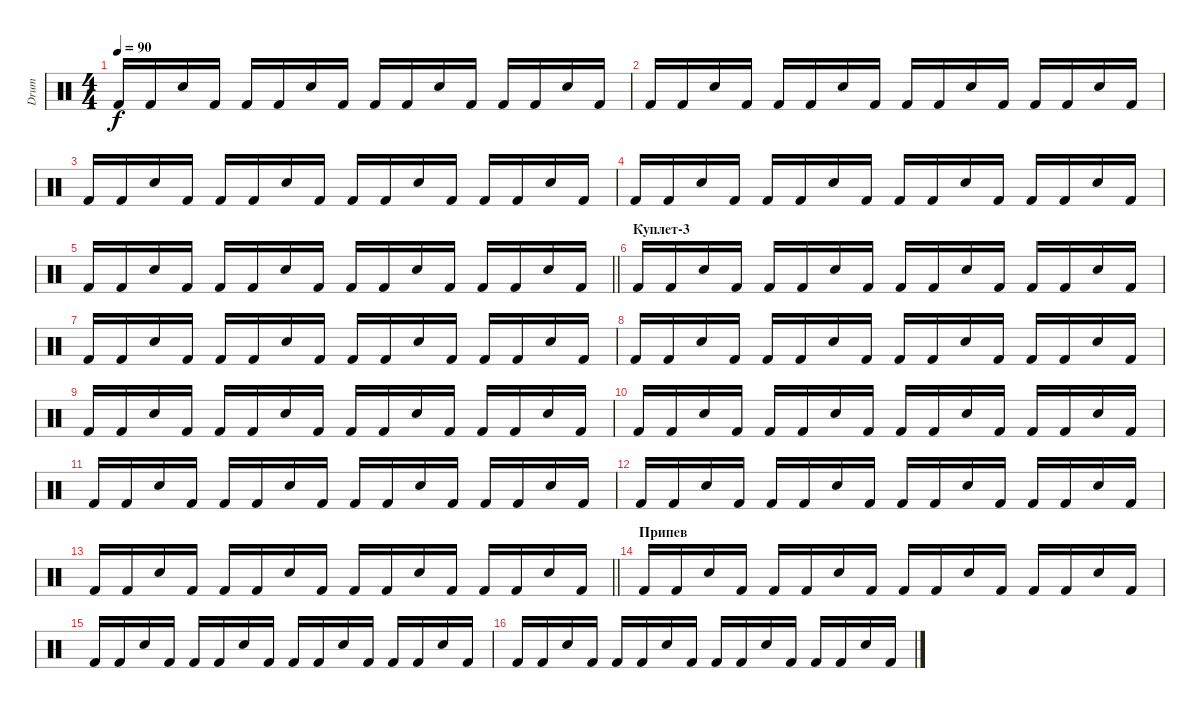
\track ("Drum" "Drum") {instrument percussion}
\staff {score}
\articulation defaults
\ts (4 4)
\tempo 90
\clef neutral
\ks c "Kick (hit) 2".16{dy f} "Kick (hit) 2".16 "Snare (hit) 2".16 "Kick (hit) 2".16 "Kick (hit) 2".16 "Kick (hit) 2".16 "Snare (hit) 2".16 "Kick (hit) 2".16 "Kick (hit) 2".16 "Kick (hit) 2".16 "Snare (hit) 2".16 "Kick (hit) 2".16 "Kick (hit) 2".16 "Kick (hit) 2".16 "Snare (hit) 2".16 "Kick (hit) 2".16
|
"Kick (hit) 2".16 "Kick (hit) 2".16 "Snare (hit) 2".16 "Kick (hit) 2".16 "Kick (hit) 2".16 "Kick (hit) 2".16 "Snare (hit) 2".16 "Kick (hit) 2".16 "Kick (hit) 2".16 "Kick (hit) 2".16 "Snare (hit) 2".16 "Kick (hit) 2".16 "Kick (hit) 2".16 "Kick (hit) 2".16 "Snare (hit) 2".16 "Kick (hit) 2".16 |
"Kick (hit) 2".16 "Kick (hit) 2".16 "Snare (hit) 2".16 "Kick (hit) 2".16 "Kick (hit) 2".16 "Kick (hit) 2".16 "Snare (hit) 2".16 "Kick (hit) 2".16 "Kick (hit) 2".16 "Kick (hit) 2".16 "Snare (hit) 2".16 "Kick (hit) 2".16 "Kick (hit) 2".16 "Kick (hit) 2".16 "Snare (hit) 2".16 "Kick (hit) 2".16 |
"Kick (hit) 2".16 "Kick (hit) 2".16 "Snare (hit) 2".16 "Kick (hit) 2".16 "Kick (hit) 2".16 "Kick (hit) 2".16 "Snare (hit) 2".16 "Kick (hit) 2".16 "Kick (hit) 2".16 "Kick (hit) 2".16 "Snare (hit) 2".16 "Kick (hit) 2".16 "Kick (hit) 2".16 "Kick (hit) 2".16 "Snare (hit) 2".16 "Kick (hit) 2".16 |
\barLineRight lightlight "Kick (hit) 2".16 "Kick (hit) 2".16 "Snare (hit) 2".16 "Kick (hit) 2".16 "Kick (hit) 2".16 "Kick (hit) 2".16 "Snare (hit) 2".16 "Kick (hit) 2".16 "Kick (hit) 2".16 "Kick (hit) 2".16 "Snare (hit) 2".16 "Kick (hit) 2".16 "Kick (hit) 2".16 "Kick (hit) 2".16 "Snare (hit) 2".16 "Kick (hit) 2".16
|
\section ("" "Куплет-3")
"Kick (hit) 2".16 "Kick (hit) 2".16 "Snare (hit) 2".16 "Kick (hit) 2".16 "Kick (hit) 2".16 "Kick (hit) 2".16 "Snare (hit) 2".16 "Kick (hit) 2".16 "Kick (hit) 2".16 "Kick (hit) 2".16 "Snare (hit) 2".16 "Kick (hit) 2".16 "Kick (hit) 2".16 "Kick (hit) 2".16 "Snare (hit) 2".16 "Kick (hit) 2".16 |
"Kick (hit) 2".16 "Kick (hit) 2".16 "Snare (hit) 2".16 "Kick (hit) 2".16 "Kick (hit) 2".16 "Kick (hit) 2".16 "Snare (hit) 2".16 "Kick (hit) 2".16 "Kick (hit) 2".16 "Kick (hit) 2".16 "Snare (hit) 2".16 "Kick (hit) 2".16 "Kick (hit) 2".16 "Kick (hit) 2".16 "Snare (hit) 2".16 "Kick (hit) 2".16 |
"Kick (hit) 2".16 "Kick (hit) 2".16 "Snare (hit) 2".16 "Kick (hit) 2".16 "Kick (hit) 2".16 "Kick (hit) 2".16 "Snare (hit) 2".16 "Kick (hit) 2".16 "Kick (hit) 2".16 "Kick (hit) 2".16 "Snare (hit) 2".16 "Kick (hit) 2".16 "Kick (hit) 2".16 "Kick (hit) 2".16 "Snare (hit) 2".16 "Kick (hit) 2".16 |
"Kick (hit) 2".16 "Kick (hit) 2".16 "Snare (hit) 2".16 "Kick (hit) 2".16 "Kick (hit) 2".16 "Kick (hit) 2".16 "Snare (hit) 2".16 "Kick (hit) 2".16 "Kick (hit) 2".16 "Kick (hit) 2".16 "Snare (hit) 2".16 "Kick (hit) 2".16 "Kick (hit) 2".16 "Kick (hit) 2".16 "Snare (hit) 2".16 "Kick (hit) 2".16 |
"Kick (hit) 2".16 "Kick (hit) 2".16 "Snare (hit) 2".16 "Kick (hit) 2".16 "Kick (hit) 2".16 "Kick (hit) 2".16 "Snare (hit) 2".16 "Kick (hit) 2".16 "Kick (hit) 2".16 "Kick (hit) 2".16 "Snare (hit) 2".16 "Kick (hit) 2".16 "Kick (hit) 2".16 "Kick (hit) 2".16 "Snare (hit) 2".16 "Kick (hit) 2".16 |
"Kick (hit) 2".16 "Kick (hit) 2".16 "Snare (hit) 2".16 "Kick (hit) 2".16 "Kick (hit) 2".16 "Kick (hit) 2".16 "Snare (hit) 2".16 "Kick (hit) 2".16 "Kick (hit) 2".16 "Kick (hit) 2".16 "Snare (hit) 2".16 "Kick (hit) 2".16 "Kick (hit) 2".16 "Kick (hit) 2".16 "Snare (hit) 2".16 "Kick (hit) 2".16 |
"Kick (hit) 2".16 "Kick (hit) 2".16 "Snare (hit) 2".16 "Kick (hit) 2".16 "Kick (hit) 2".16 "Kick (hit) 2".16 "Snare (hit) 2".16 "Kick (hit) 2".16 "Kick (hit) 2".16 "Kick (hit) 2".16 "Snare (hit) 2".16 "Kick (hit) 2".16 "Kick (hit) 2".16 "Kick (hit) 2".16 "Snare (hit) 2".16 "Kick (hit) 2".16 |
\barLineRight lightlight "Kick (hit) 2".16 "Kick (hit) 2".16 "Snare (hit) 2".16 "Kick (hit) 2".16 "Kick (hit) 2".16 "Kick (hit) 2".16 "Snare (hit) 2".16 "Kick (hit) 2".16 "Kick (hit) 2".16 "Kick (hit) 2".16 "Snare (hit) 2".16 "Kick (hit) 2".16 "Kick (hit) 2".16 "Kick (hit) 2".16 "Snare (hit) 2".16 "Kick (hit) 2".16
|
\section ("" "Припев")
"Kick (hit) 2".16 "Kick (hit) 2".16 "Snare (hit) 2".16 "Kick (hit) 2".16 "Kick (hit) 2".16 "Kick (hit) 2".16 "Snare (hit) 2".16 "Kick (hit) 2".16 "Kick (hit) 2".16 "Kick (hit) 2".16 "Snare (hit) 2".16 "Kick (hit) 2".16 "Kick (hit) 2".16 "Kick (hit) 2".16 "Snare (hit) 2".16 "Kick (hit) 2".16 |
"Kick (hit) 2".16 "Kick (hit) 2".16 "Snare (hit) 2".16 "Kick (hit) 2".16 "Kick (hit) 2".16 "Kick (hit) 2".16 "Snare (hit) 2".16 "Kick (hit) 2".16 "Kick (hit) 2".16 "Kick (hit) 2".16 "Snare (hit) 2".16 "Kick (hit) 2".16 "Kick (hit) 2".16 "Kick (hit) 2".16 "Snare (hit) 2".16 "Kick (hit) 2".16 |
"Kick (hit) 2".16 "Kick (hit) 2".16 "Snare (hit) 2".16 "Kick (hit) 2".16 "Kick (hit) 2".16 "Kick (hit) 2".16 "Snare (hit) 2".16 "Kick (hit) 2".16 "Kick (hit) 2".16 "Kick (hit) 2".16 "Snare (hit) 2".16 "Kick (hit) 2".16 "Kick (hit) 2".16 "Kick (hit) 2".16 "Snare (hit) 2".16 "Kick (hit) 2".16
